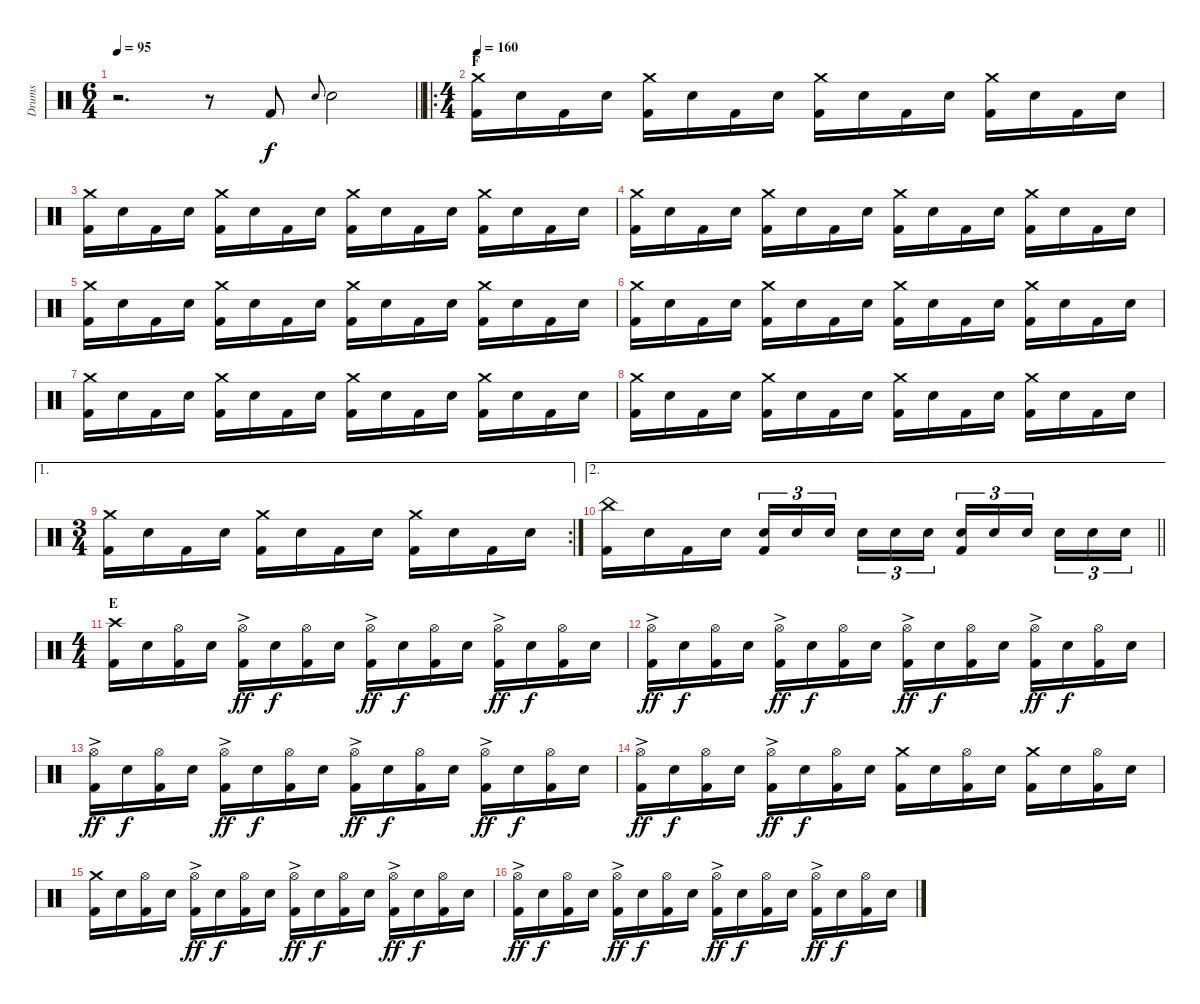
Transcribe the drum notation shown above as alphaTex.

\track ("Drums" "Drums") {instrument percussion}
\staff {score}
\articulation defaults
\ts (6 4)
\tempo 95
\clef neutral
\barLineRight lightlight
\ks c
r.2{d dy ff} r.8 "Kick (hit) 2".8{dy f} "Snare (hit) 2".8{gr onbeat} "Snare (hit) 2".2 |
\ro
\ts (4 4)
\section ("" "F")
\tempo 160
("Crash medium (hit)" "Kick (hit) 2").16 "Snare (hit) 2".16 "Kick (hit) 2".16 "Snare (hit) 2".16 ("Crash medium (hit)" "Kick (hit) 2").16 "Snare (hit) 2".16 "Kick (hit) 2".16 "Snare (hit) 2".16 ("Crash medium (hit)" "Kick (hit) 2").16 "Snare (hit) 2".16 "Kick (hit) 2".16 "Snare (hit) 2".16 ("Crash medium (hit)" "Kick (hit) 2").16 "Snare (hit) 2".16 "Kick (hit) 2".16 "Snare (hit) 2".16 |
("Crash medium (hit)" "Kick (hit) 2").16 "Snare (hit) 2".16 "Kick (hit) 2".16 "Snare (hit) 2".16 ("Crash medium (hit)" "Kick (hit) 2").16 "Snare (hit) 2".16 "Kick (hit) 2".16 "Snare (hit) 2".16 ("Crash medium (hit)" "Kick (hit) 2").16 "Snare (hit) 2".16 "Kick (hit) 2".16 "Snare (hit) 2".16 ("Crash medium (hit)" "Kick (hit) 2").16 "Snare (hit) 2".16 "Kick (hit) 2".16 "Snare (hit) 2".16 |
("Crash medium (hit)" "Kick (hit) 2").16 "Snare (hit) 2".16 "Kick (hit) 2".16 "Snare (hit) 2".16 ("Crash medium (hit)" "Kick (hit) 2").16 "Snare (hit) 2".16 "Kick (hit) 2".16 "Snare (hit) 2".16 ("Crash medium (hit)" "Kick (hit) 2").16 "Snare (hit) 2".16 "Kick (hit) 2".16 "Snare (hit) 2".16 ("Crash medium (hit)" "Kick (hit) 2").16 "Snare (hit) 2".16 "Kick (hit) 2".16 "Snare (hit) 2".16 |
("Crash medium (hit)" "Kick (hit) 2").16 "Snare (hit) 2".16 "Kick (hit) 2".16 "Snare (hit) 2".16 ("Crash medium (hit)" "Kick (hit) 2").16 "Snare (hit) 2".16 "Kick (hit) 2".16 "Snare (hit) 2".16 ("Crash medium (hit)" "Kick (hit) 2").16 "Snare (hit) 2".16 "Kick (hit) 2".16 "Snare (hit) 2".16 ("Crash medium (hit)" "Kick (hit) 2").16 "Snare (hit) 2".16 "Kick (hit) 2".16 "Snare (hit) 2".16 |
("Crash medium (hit)" "Kick (hit) 2").16 "Snare (hit) 2".16 "Kick (hit) 2".16 "Snare (hit) 2".16 ("Crash medium (hit)" "Kick (hit) 2").16 "Snare (hit) 2".16 "Kick (hit) 2".16 "Snare (hit) 2".16 ("Crash medium (hit)" "Kick (hit) 2").16 "Snare (hit) 2".16 "Kick (hit) 2".16 "Snare (hit) 2".16 ("Crash medium (hit)" "Kick (hit) 2").16 "Snare (hit) 2".16 "Kick (hit) 2".16 "Snare (hit) 2".16 |
("Crash medium (hit)" "Kick (hit) 2").16 "Snare (hit) 2".16 "Kick (hit) 2".16 "Snare (hit) 2".16 ("Crash medium (hit)" "Kick (hit) 2").16 "Snare (hit) 2".16 "Kick (hit) 2".16 "Snare (hit) 2".16 ("Crash medium (hit)" "Kick (hit) 2").16 "Snare (hit) 2".16 "Kick (hit) 2".16 "Snare (hit) 2".16 ("Crash medium (hit)" "Kick (hit) 2").16 "Snare (hit) 2".16 "Kick (hit) 2".16 "Snare (hit) 2".16 |
("Crash medium (hit)" "Kick (hit) 2").16 "Snare (hit) 2".16 "Kick (hit) 2".16 "Snare (hit) 2".16 ("Crash medium (hit)" "Kick (hit) 2").16 "Snare (hit) 2".16 "Kick (hit) 2".16 "Snare (hit) 2".16 ("Crash medium (hit)" "Kick (hit) 2").16 "Snare (hit) 2".16 "Kick (hit) 2".16 "Snare (hit) 2".16 ("Crash medium (hit)" "Kick (hit) 2").16 "Snare (hit) 2".16 "Kick (hit) 2".16 "Snare (hit) 2".16 |
\ae 1
\rc 2
\ts (3 4)
("Crash medium (hit)" "Kick (hit) 2").16 "Snare (hit) 2".16 "Kick (hit) 2".16 "Snare (hit) 2".16 ("Crash medium (hit)" "Kick (hit) 2").16 "Snare (hit) 2".16 "Kick (hit) 2".16 "Snare (hit) 2".16 ("Crash medium (hit)" "Kick (hit) 2").16 "Snare (hit) 2".16 "Kick (hit) 2".16 "Snare (hit) 2".16 |
\ae 2
\barLineRight lightlight
("China (hit)" "Kick (hit) 2").16 "Snare (hit) 2".16 "Kick (hit) 2".16 "Snare (hit) 2".16 ("Snare (hit) 2" "Kick (hit) 2").16{tu (3 2)} "Snare (hit) 2".16{tu (3 2)} "Snare (hit) 2".16{tu (3 2) beam splitsecondary} "Snare (hit) 2".16{tu (3 2)} "Snare (hit) 2".16{tu (3 2)} "Snare (hit) 2".16{tu (3 2)} ("Snare (hit) 2" "Kick (hit) 2").16{tu (3 2)} "Snare (hit) 2".16{tu (3 2)} "Snare (hit) 2".16{tu (3 2) beam splitsecondary} "Snare (hit) 2".16{tu (3 2)} "Snare (hit) 2".16{tu (3 2)} "Snare (hit) 2".16{tu (3 2)} |
\ts (4 4)
\section ("" "E")
("Crash high (hit)" "Kick (hit) 2").16 "Snare (hit) 2".16 ("Hi-Hat (open)" "Kick (hit) 2").16 "Snare (hit) 2".16 ("Hi-Hat (open)"{ac} "Kick (hit) 2").16{dy ff} "Snare (hit) 2".16{dy f} ("Hi-Hat (open)" "Kick (hit) 2").16 "Snare (hit) 2".16 ("Hi-Hat (open)"{ac} "Kick (hit) 2").16{dy ff} "Snare (hit) 2".16{dy f} ("Hi-Hat (open)" "Kick (hit) 2").16 "Snare (hit) 2".16 ("Hi-Hat (open)"{ac} "Kick (hit) 2").16{dy ff} "Snare (hit) 2".16{dy f} ("Hi-Hat (open)" "Kick (hit) 2").16 "Snare (hit) 2".16 |
("Hi-Hat (open)"{ac} "Kick (hit) 2").16{dy ff} "Snare (hit) 2".16{dy f} ("Hi-Hat (open)" "Kick (hit) 2").16 "Snare (hit) 2".16 ("Hi-Hat (open)"{ac} "Kick (hit) 2").16{dy ff} "Snare (hit) 2".16{dy f} ("Hi-Hat (open)" "Kick (hit) 2").16 "Snare (hit) 2".16 ("Hi-Hat (open)"{ac} "Kick (hit) 2").16{dy ff} "Snare (hit) 2".16{dy f} ("Hi-Hat (open)" "Kick (hit) 2").16 "Snare (hit) 2".16 ("Hi-Hat (open)"{ac} "Kick (hit) 2").16{dy ff} "Snare (hit) 2".16{dy f} ("Hi-Hat (open)" "Kick (hit) 2").16 "Snare (hit) 2".16 |
("Hi-Hat (open)"{ac} "Kick (hit) 2").16{dy ff} "Snare (hit) 2".16{dy f} ("Hi-Hat (open)" "Kick (hit) 2").16 "Snare (hit) 2".16 ("Hi-Hat (open)"{ac} "Kick (hit) 2").16{dy ff} "Snare (hit) 2".16{dy f} ("Hi-Hat (open)" "Kick (hit) 2").16 "Snare (hit) 2".16 ("Hi-Hat (open)"{ac} "Kick (hit) 2").16{dy ff} "Snare (hit) 2".16{dy f} ("Hi-Hat (open)" "Kick (hit) 2").16 "Snare (hit) 2".16 ("Hi-Hat (open)"{ac} "Kick (hit) 2").16{dy ff} "Snare (hit) 2".16{dy f} ("Hi-Hat (open)" "Kick (hit) 2").16 "Snare (hit) 2".16 |
("Hi-Hat (open)"{ac} "Kick (hit) 2").16{dy ff} "Snare (hit) 2".16{dy f} ("Hi-Hat (open)" "Kick (hit) 2").16 "Snare (hit) 2".16 ("Hi-Hat (open)"{ac} "Kick (hit) 2").16{dy ff} "Snare (hit) 2".16{dy f} ("Hi-Hat (open)" "Kick (hit) 2").16 "Snare (hit) 2".16 ("Crash medium (hit)" "Kick (hit) 2").16 "Snare (hit) 2".16 ("Hi-Hat (open)" "Kick (hit) 2").16 "Snare (hit) 2".16 ("Crash medium (hit)" "Kick (hit) 2").16 "Snare (hit) 2".16 ("Hi-Hat (open)" "Kick (hit) 2").16 "Snare (hit) 2".16 |
("Crash medium (hit)" "Kick (hit) 2").16 "Snare (hit) 2".16 ("Hi-Hat (open)" "Kick (hit) 2").16 "Snare (hit) 2".16 ("Hi-Hat (open)"{ac} "Kick (hit) 2").16{dy ff} "Snare (hit) 2".16{dy f} ("Hi-Hat (open)" "Kick (hit) 2").16 "Snare (hit) 2".16 ("Hi-Hat (open)"{ac} "Kick (hit) 2").16{dy ff} "Snare (hit) 2".16{dy f} ("Hi-Hat (open)" "Kick (hit) 2").16 "Snare (hit) 2".16 ("Hi-Hat (open)"{ac} "Kick (hit) 2").16{dy ff} "Snare (hit) 2".16{dy f} ("Hi-Hat (open)" "Kick (hit) 2").16 "Snare (hit) 2".16 |
("Hi-Hat (open)"{ac} "Kick (hit) 2").16{dy ff} "Snare (hit) 2".16{dy f} ("Hi-Hat (open)" "Kick (hit) 2").16 "Snare (hit) 2".16 ("Hi-Hat (open)"{ac} "Kick (hit) 2").16{dy ff} "Snare (hit) 2".16{dy f} ("Hi-Hat (open)" "Kick (hit) 2").16 "Snare (hit) 2".16 ("Hi-Hat (open)"{ac} "Kick (hit) 2").16{dy ff} "Snare (hit) 2".16{dy f} ("Hi-Hat (open)" "Kick (hit) 2").16 "Snare (hit) 2".16 ("Hi-Hat (open)"{ac} "Kick (hit) 2").16{dy ff} "Snare (hit) 2".16{dy f} ("Hi-Hat (open)" "Kick (hit) 2").16 "Snare (hit) 2".16
